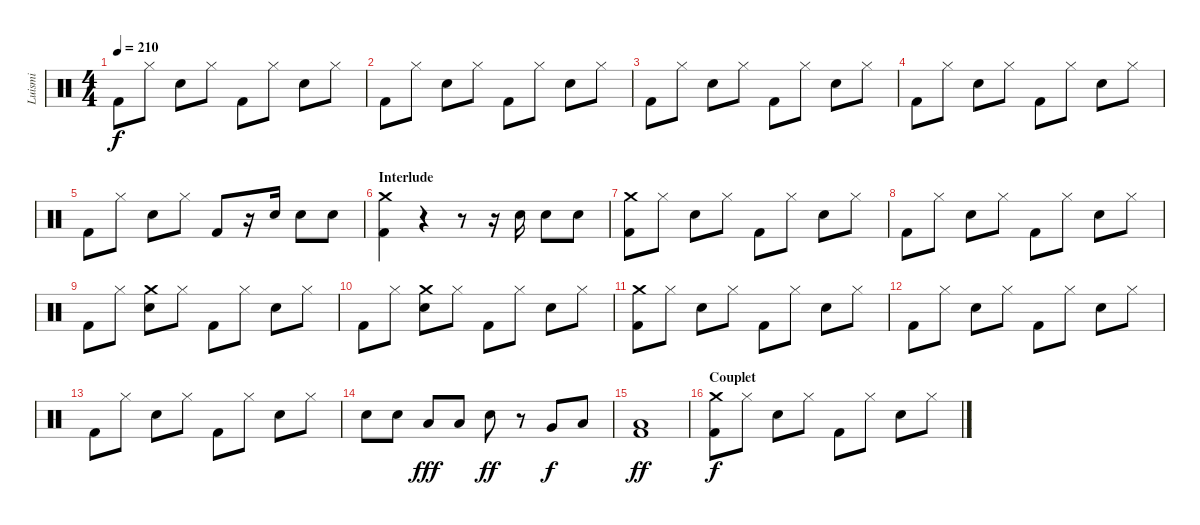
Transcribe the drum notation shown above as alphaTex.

\track ("Luismi" "Luismi") {instrument percussion}
\staff {score}
\articulation defaults
\ts (4 4)
\tempo 210
\clef neutral
\ks c "Kick (hit) 2".8{dy f} "Hi-Hat (closed)".8 "Snare (hit) 2".8 "Hi-Hat (closed)".8 "Kick (hit) 2".8 "Hi-Hat (closed)".8 "Snare (hit) 2".8 "Hi-Hat (closed)".8
|
"Kick (hit) 2".8 "Hi-Hat (closed)".8 "Snare (hit) 2".8 "Hi-Hat (closed)".8 "Kick (hit) 2".8 "Hi-Hat (closed)".8 "Snare (hit) 2".8 "Hi-Hat (closed)".8 |
"Kick (hit) 2".8 "Hi-Hat (closed)".8 "Snare (hit) 2".8 "Hi-Hat (closed)".8 "Kick (hit) 2".8 "Hi-Hat (closed)".8 "Snare (hit) 2".8 "Hi-Hat (closed)".8 |
"Kick (hit) 2".8 "Hi-Hat (closed)".8 "Snare (hit) 2".8 "Hi-Hat (closed)".8 "Kick (hit) 2".8 "Hi-Hat (closed)".8 "Snare (hit) 2".8 "Hi-Hat (closed)".8 |
"Kick (hit) 2".8 "Hi-Hat (closed)".8 "Snare (hit) 2".8 "Hi-Hat (closed)".8 "Kick (hit) 2".8 r.16 "Snare (hit) 2".16 "Snare (hit) 2".8 "Snare (hit) 2".8 |
\section ("" "Interlude")
("Crash medium (hit)" "Kick (hit) 2").4 r.4 r.8 r.16 "Snare (hit) 2".16 "Snare (hit) 2".8 "Snare (hit) 2".8 |
("Crash medium (hit)" "Kick (hit) 2").8 "Hi-Hat (closed)".8 "Snare (hit) 2".8 "Hi-Hat (closed)".8 "Kick (hit) 2".8 "Hi-Hat (closed)".8 "Snare (hit) 2".8 "Hi-Hat (closed)".8 |
"Kick (hit) 2".8 "Hi-Hat (closed)".8 "Snare (hit) 2".8 "Hi-Hat (closed)".8 "Kick (hit) 2".8 "Hi-Hat (closed)".8 "Snare (hit) 2".8 "Hi-Hat (closed)".8 |
"Kick (hit) 2".8 "Hi-Hat (closed)".8 ("Crash medium (hit)" "Snare (hit) 2").8 "Hi-Hat (closed)".8 "Kick (hit) 2".8 "Hi-Hat (closed)".8 "Snare (hit) 2".8 "Hi-Hat (closed)".8 |
"Kick (hit) 2".8 "Hi-Hat (closed)".8 ("Crash medium (hit)" "Snare (hit) 2").8 "Hi-Hat (closed)".8 "Kick (hit) 2".8 "Hi-Hat (closed)".8 "Snare (hit) 2".8 "Hi-Hat (closed)".8 |
("Crash medium (hit)" "Kick (hit) 2").8 "Hi-Hat (closed)".8 "Snare (hit) 2".8 "Hi-Hat (closed)".8 "Kick (hit) 2".8 "Hi-Hat (closed)".8 "Snare (hit) 2".8 "Hi-Hat (closed)".8 |
"Kick (hit) 2".8 "Hi-Hat (closed)".8 "Snare (hit) 2".8 "Hi-Hat (closed)".8 "Kick (hit) 2".8 "Hi-Hat (closed)".8 "Snare (hit) 2".8 "Hi-Hat (closed)".8 |
"Kick (hit) 2".8 "Hi-Hat (closed)".8 "Snare (hit) 2".8 "Hi-Hat (closed)".8 "Kick (hit) 2".8 "Hi-Hat (closed)".8 "Snare (hit) 2".8 "Hi-Hat (closed)".8 |
"Snare (hit) 2".8 "Snare (hit) 2".8 "Low Tom (hit)".8{dy fff} "Low Tom (hit)".8 "Snare (hit) 2".8{dy ff} r.8 "Very Low Tom (hit)".8{dy f} "Low Floor Tom (hit)".8 |
("Low Floor Tom (hit)" "Kick (hit) 2").1{dy ff} |
\section ("" "Couplet")
("Crash medium (hit)" "Kick (hit) 2").8{dy f} "Hi-Hat (closed)".8 "Snare (hit) 2".8 "Hi-Hat (closed)".8 "Kick (hit) 2".8 "Hi-Hat (closed)".8 "Snare (hit) 2".8 "Hi-Hat (closed)".8
